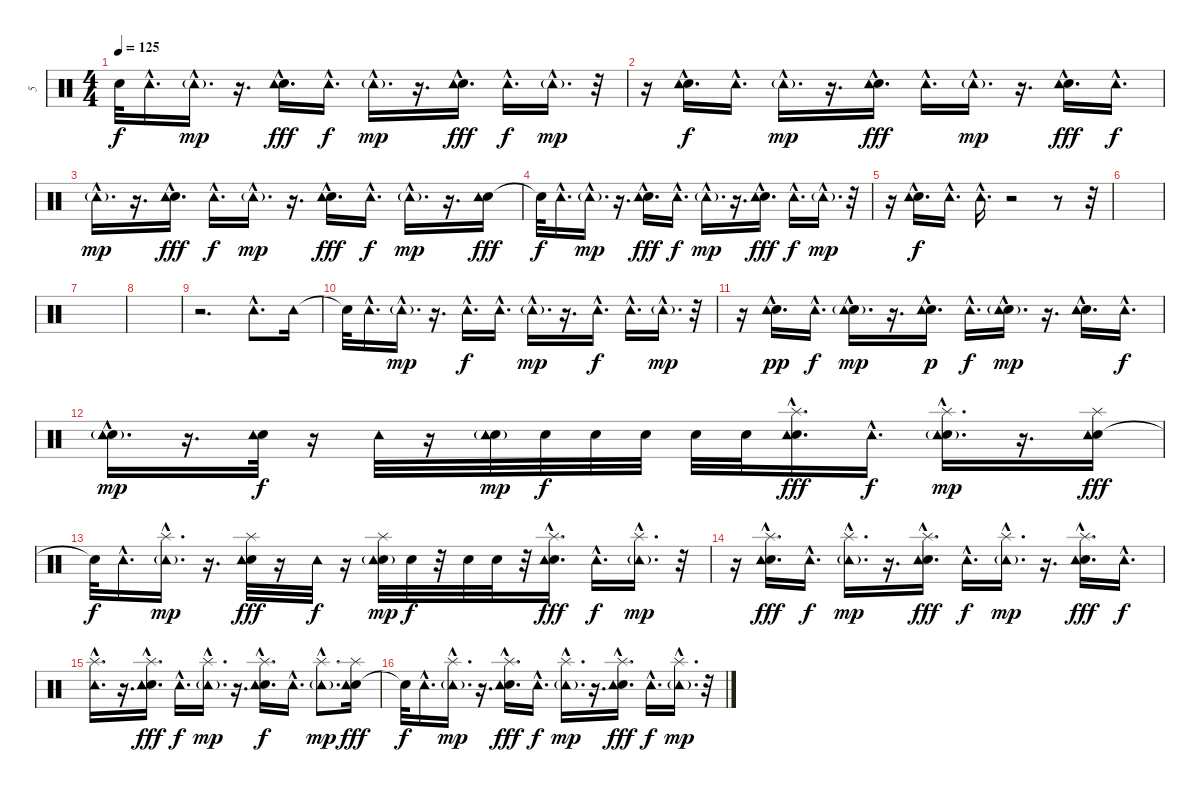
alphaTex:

\track ("5" "5") {instrument percussion}
\staff {score}
\articulation defaults
\ts (4 4)
\tempo 125
\clef neutral
\ks c "Snare (hit)"{t}.32{dy f} "Tambourine (hit)"{hac}.16{d} "Tambourine (hit)"{g hac}.16{d dy mp}
r.16{d} ("Electric Snare (hit)"{hac} "Tambourine (hit)"{hac}).16{d dy fff} "Tambourine (hit)"{hac}.16{d dy f} "Tambourine (hit)"{g hac}.16{d dy mp} r.16{d} ("Electric Snare (hit)"{hac} "Tambourine (hit)"{hac}).16{d dy fff} "Tambourine (hit)"{hac}.16{d dy f} "Tambourine (hit)"{g hac}.16{d dy mp} r.32 |
r.16 ("Electric Snare (hit)"{hac} "Tambourine (hit)"{hac}).16{d dy f} "Tambourine (hit)"{hac}.16{d} "Tambourine (hit)"{g hac}.16{d dy mp} r.16{d} ("Electric Snare (hit)"{hac} "Tambourine (hit)"{hac}).16{d dy fff} "Tambourine (hit)"{hac}.16{d} "Tambourine (hit)"{g hac}.16{d dy mp} r.16{d} ("Electric Snare (hit)"{hac} "Tambourine (hit)"{hac}).16{d dy fff} "Tambourine (hit)"{hac}.16{d dy f} |
"Tambourine (hit)"{g hac}.16{d dy mp} r.16{d} ("Electric Snare (hit)"{hac} "Tambourine (hit)"{hac}).16{d dy fff} "Tambourine (hit)"{hac}.16{d dy f} "Tambourine (hit)"{g hac}.16{d dy mp} r.16{d} ("Electric Snare (hit)"{hac} "Tambourine (hit)"{hac}).16{d dy fff} "Tambourine (hit)"{hac}.16{d dy f} "Tambourine (hit)"{g hac}.16{d dy mp} r.16{d} ("Electric Snare (hit)" "Tambourine (hit)").16{dy fff} |
"Snare (hit)"{t}.32{dy f} "Tambourine (hit)"{hac}.16{d} "Tambourine (hit)"{g hac}.16{d dy mp} r.16{d} ("Electric Snare (hit)"{hac} "Tambourine (hit)"{hac}).16{d dy fff} "Tambourine (hit)"{hac}.16{d dy f} "Tambourine (hit)"{g hac}.16{d dy mp} r.16{d} ("Electric Snare (hit)"{hac} "Tambourine (hit)"{hac}).16{d dy fff} "Tambourine (hit)"{hac}.16{d dy f} "Tambourine (hit)"{g hac}.16{d dy mp} r.32 |
r.16 ("Electric Snare (hit)"{hac} "Tambourine (hit)"{hac}).16{d dy f} "Tambourine (hit)"{hac}.16{d} "Tambourine (hit)"{hac}.16{d} r.2 r.8 r.32 |
|
|
|
r.2{d} "Tambourine (hit)"{hac}.8{d} "Tambourine (hit)".16 |
"Snare (hit)"{t}.32 "Tambourine (hit)"{hac}.16{d} "Tambourine (hit)"{g hac}.16{d dy mp} r.16{d} "Tambourine (hit)"{hac}.16{d dy f} "Tambourine (hit)"{hac}.16{d} "Tambourine (hit)"{g hac}.16{d dy mp} r.16{d} "Tambourine (hit)"{hac}.16{d dy f} "Tambourine (hit)"{hac}.16{d} "Tambourine (hit)"{g hac}.16{d dy mp} r.32 |
r.16 ("Electric Snare (hit)"{hac} "Tambourine (hit)"{hac}).16{d dy pp} "Tambourine (hit)"{hac}.16{d dy f} ("Electric Snare (hit)"{hac} "Tambourine (hit)"{g hac}).16{d dy mp} r.16{d} ("Electric Snare (hit)"{hac} "Tambourine (hit)"{hac}).16{d dy p} "Tambourine (hit)"{hac}.16{d dy f} ("Electric Snare (hit)"{hac} "Tambourine (hit)"{g hac}).16{d dy mp} r.16{d} ("Electric Snare (hit)"{hac} "Tambourine (hit)"{hac}).16{d} "Tambourine (hit)"{hac}.16{d dy f} |
("Electric Snare (hit)"{hac} "Tambourine (hit)"{g hac}).16{d dy mp} r.16{d} ("Electric Snare (hit)" "Tambourine (hit)").32{dy f} r.16 "Tambourine (hit)".32 r.16 ("Electric Snare (hit)" "Tambourine (hit)"{g}).32{dy mp} "Electric Snare (hit)".32{dy f} "Electric Snare (hit)".32 "Electric Snare (hit)".32 "Electric Snare (hit)".32 "Electric Snare (hit)".32 ("Electric Snare (hit)"{hac} "Tambourine (hit)"{hac} "Splash (hit)"{hac}).16{d dy fff} "Tambourine (hit)"{hac}.16{d dy f} ("Electric Snare (hit)"{hac} "Tambourine (hit)"{g hac} "Splash (hit)"{hac}).16{d dy mp} r.16{d} ("Electric Snare (hit)" "Tambourine (hit)" "Splash (hit)").16{dy fff} |
"Snare (hit)"{t}.32{dy f} "Tambourine (hit)"{hac}.16{d} ("Tambourine (hit)"{g hac} "Splash (hit)"{hac}).16{d dy mp} r.16{d} ("Electric Snare (hit)" "Tambourine (hit)" "Splash (hit)").32{dy fff} r.16 "Tambourine (hit)".32{dy f} r.16 ("Electric Snare (hit)" "Tambourine (hit)"{g} "Splash (hit)").32{dy mp} "Electric Snare (hit)".32{dy f} r.32 "Electric Snare (hit)".32 "Electric Snare (hit)".32 r.32 ("Electric Snare (hit)"{hac} "Tambourine (hit)"{hac} "Splash (hit)"{hac}).16{d dy fff} "Tambourine (hit)"{hac}.16{d dy f} ("Tambourine (hit)"{g hac} "Splash (hit)"{hac}).16{d dy mp} r.32 |
r.16 ("Electric Snare (hit)"{hac} "Tambourine (hit)"{hac} "Splash (hit)"{hac}).16{d dy fff} "Tambourine (hit)"{hac}.16{d dy f} ("Tambourine (hit)"{g hac} "Splash (hit)"{hac}).16{d dy mp} r.16{d} ("Electric Snare (hit)"{hac} "Tambourine (hit)"{hac} "Splash (hit)"{hac}).16{d dy fff} "Tambourine (hit)"{hac}.16{d dy f} ("Tambourine (hit)"{g hac} "Splash (hit)"{hac}).16{d dy mp} r.16{d} ("Electric Snare (hit)"{hac} "Tambourine (hit)"{hac} "Splash (hit)"{hac}).16{d dy fff} "Tambourine (hit)"{hac}.16{d dy f} |
("Tambourine (hit)"{hac} "Splash (hit)"{hac}).16{d} r.16{d} ("Electric Snare (hit)"{hac} "Tambourine (hit)"{hac} "Splash (hit)"{hac}).16{d dy fff} "Tambourine (hit)"{hac}.16{d dy f} ("Tambourine (hit)"{g hac} "Splash (hit)"{hac}).16{d dy mp} r.16{d} ("Electric Snare (hit)"{hac} "Tambourine (hit)"{hac} "Splash (hit)"{hac}).16{d dy f} "Tambourine (hit)"{hac}.16{d} ("Tambourine (hit)"{g hac} "Splash (hit)"{hac}).8{d dy mp} ("Electric Snare (hit)" "Tambourine (hit)" "Splash (hit)").16{dy fff} |
"Snare (hit)"{t}.32{dy f} "Tambourine (hit)"{hac}.16{d} ("Tambourine (hit)"{g hac} "Splash (hit)"{hac}).16{d dy mp} r.16{d volume 0} ("Electric Snare (hit)"{hac} "Tambourine (hit)"{hac} "Splash (hit)"{hac}).16{d dy fff} "Tambourine (hit)"{hac}.16{d dy f} ("Tambourine (hit)"{g hac} "Splash (hit)"{hac}).16{d dy mp} r.16{d} ("Electric Snare (hit)"{hac} "Tambourine (hit)"{hac} "Splash (hit)"{hac}).16{d dy fff} "Tambourine (hit)"{hac}.16{d dy f} ("Tambourine (hit)"{g hac} "Splash (hit)"{hac}).16{d dy mp} r.32
